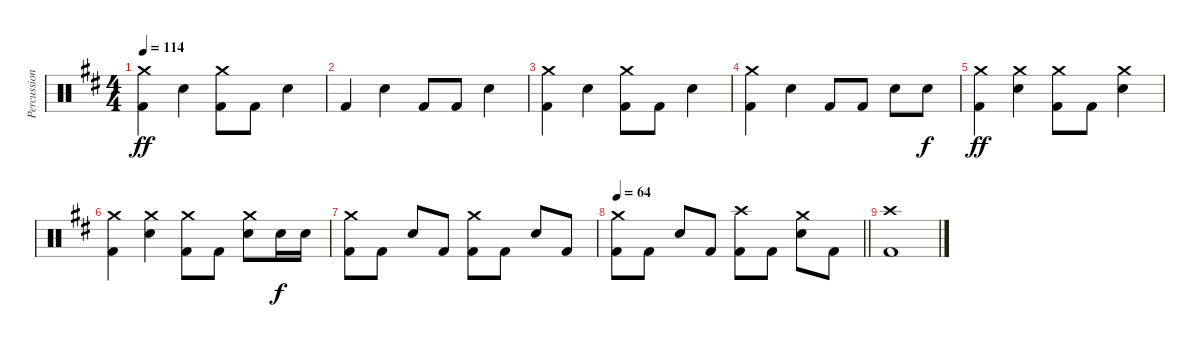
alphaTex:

\track ("Percussion" "Percussion") {instrument percussion}
\staff {score}
\articulation defaults
\ts (4 4)
\tempo 114
\clef neutral
\ks d
("Crash medium (hit)" "Kick (hit) 2").4{dy ff} "Snare (hit) 2".4 ("Crash medium (hit)" "Kick (hit) 2").8 "Kick (hit) 2".8 "Snare (hit) 2".4 |
"Kick (hit) 2".4 "Snare (hit) 2".4 "Kick (hit) 2".8 "Kick (hit) 2".8 "Snare (hit) 2".4 |
("Crash medium (hit)" "Kick (hit) 2").4 "Snare (hit) 2".4 ("Crash medium (hit)" "Kick (hit) 2").8 "Kick (hit) 2".8 "Snare (hit) 2".4 |
("Crash medium (hit)" "Kick (hit) 2").4 "Snare (hit) 2".4 "Kick (hit) 2".8 "Kick (hit) 2".8 "Snare (hit) 2".8 "Snare (hit) 2".8{dy f} |
("Crash medium (hit)" "Kick (hit) 2").4{dy ff} ("Crash medium (hit)" "Snare (hit) 2").4 ("Crash medium (hit)" "Kick (hit) 2").8 "Kick (hit) 2".8 ("Crash medium (hit)" "Snare (hit) 2").4 |
("Crash medium (hit)" "Kick (hit) 2").4 ("Crash medium (hit)" "Snare (hit) 2").4 ("Crash medium (hit)" "Kick (hit) 2").8 "Kick (hit) 2".8 ("Crash medium (hit)" "Snare (hit) 2").8 "Snare (hit) 2".16{dy f} "Snare (hit) 2".16 |
("Crash medium (hit)" "Kick (hit) 2").8 "Kick (hit) 2".8 "Snare (hit) 2".8 "Kick (hit) 2".8 ("Crash medium (hit)" "Kick (hit) 2").8 "Kick (hit) 2".8 "Snare (hit) 2".8 "Kick (hit) 2".8 |
\tempo 64
\barLineRight lightlight
("Crash medium (hit)" "Kick (hit) 2").8 "Kick (hit) 2".8 "Snare (hit) 2".8 "Kick (hit) 2".8 ("Crash high (hit)" "Kick (hit) 2").8 "Kick (hit) 2".8 ("Crash medium (hit)" "Snare (hit) 2").8 "Kick (hit) 2".8 |
("Crash high (hit)" "Kick (hit) 2").1
